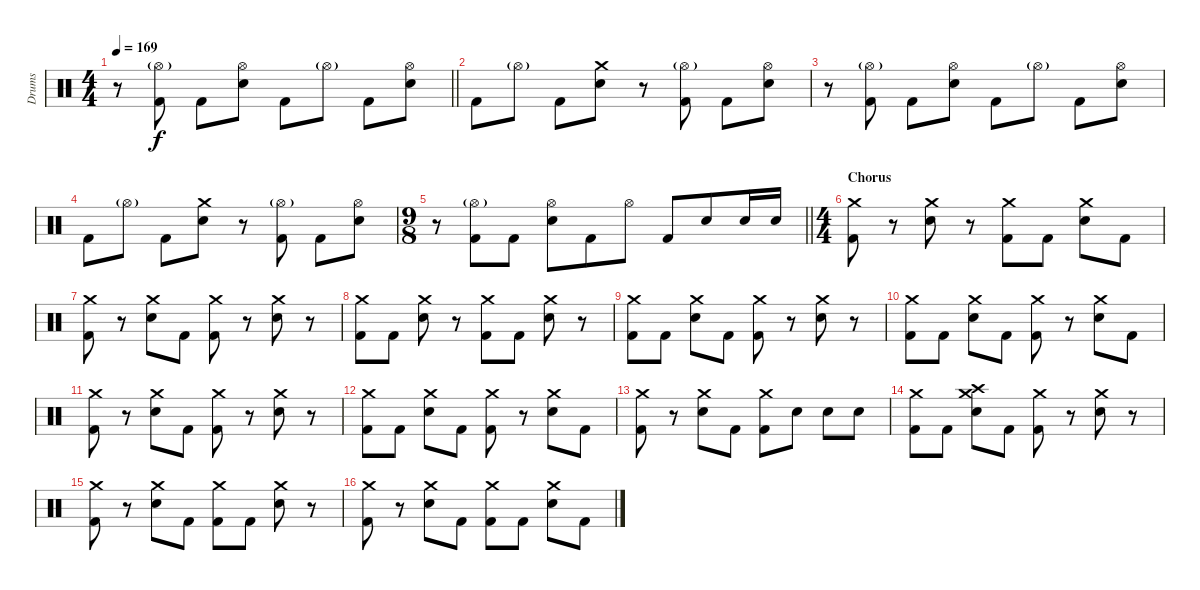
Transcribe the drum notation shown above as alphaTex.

\track ("Drums" "Drums") {instrument percussion}
\staff {score}
\articulation defaults
\ts (4 4)
\tempo 169
\clef neutral
\barLineRight lightlight
\ks c
r.8{dy f} ("Hi-Hat (open)"{g} "Kick (hit) 2").8 "Kick (hit) 2".8 ("Hi-Hat (open)" "Electric Snare (hit)").8 "Kick (hit) 2".8 "Hi-Hat (open)"{g}.8 "Kick (hit) 2".8 ("Hi-Hat (open)" "Electric Snare (hit)").8 |
"Kick (hit) 2".8 "Hi-Hat (open)"{g}.8 "Kick (hit) 2".8 ("Crash medium (hit)" "Electric Snare (hit)").8 r.8 ("Hi-Hat (open)"{g} "Kick (hit) 2").8 "Kick (hit) 2".8 ("Hi-Hat (open)" "Electric Snare (hit)").8 |
r.8 ("Hi-Hat (open)"{g} "Kick (hit) 2").8 "Kick (hit) 2".8 ("Hi-Hat (open)" "Electric Snare (hit)").8 "Kick (hit) 2".8 "Hi-Hat (open)"{g}.8 "Kick (hit) 2".8 ("Hi-Hat (open)" "Electric Snare (hit)").8 |
"Kick (hit) 2".8 "Hi-Hat (open)"{g}.8 "Kick (hit) 2".8 ("Crash medium (hit)" "Electric Snare (hit)").8 r.8 ("Hi-Hat (open)"{g} "Kick (hit) 2").8 "Kick (hit) 2".8 ("Hi-Hat (open)" "Electric Snare (hit)").8 |
\ts (9 8)
\barLineRight lightlight
r.8 ("Hi-Hat (open)"{g} "Kick (hit) 2").8 "Kick (hit) 2".8 ("Hi-Hat (open)" "Electric Snare (hit)").8 "Kick (hit) 2".8 "Hi-Hat (open)".8 "Kick (hit) 2".8 "Electric Snare (hit)".8 "Electric Snare (hit)".16 "Electric Snare (hit)".16 |
\ts (4 4)
\section ("" "Chorus")
("Crash medium (hit)" "Kick (hit) 2").8 r.8 ("Crash medium (hit)" "Electric Snare (hit)").8 r.8 ("Crash medium (hit)" "Kick (hit) 2").8 "Kick (hit) 2".8 ("Crash medium (hit)" "Electric Snare (hit)").8 "Kick (hit) 2".8 |
("Crash medium (hit)" "Kick (hit) 2").8 r.8 ("Crash medium (hit)" "Electric Snare (hit)").8 "Kick (hit) 2".8 ("Crash medium (hit)" "Kick (hit) 2").8 r.8 ("Crash medium (hit)" "Electric Snare (hit)").8 r.8 |
("Crash medium (hit)" "Kick (hit) 2").8 "Kick (hit) 2".8 ("Crash medium (hit)" "Electric Snare (hit)").8 r.8 ("Crash medium (hit)" "Kick (hit) 2").8 "Kick (hit) 2".8 ("Crash medium (hit)" "Electric Snare (hit)").8 r.8 |
("Crash medium (hit)" "Kick (hit) 2").8 "Kick (hit) 2".8 ("Crash medium (hit)" "Electric Snare (hit)").8 "Kick (hit) 2".8 ("Crash medium (hit)" "Kick (hit) 2").8 r.8 ("Crash medium (hit)" "Electric Snare (hit)").8 r.8 |
("Crash medium (hit)" "Kick (hit) 2").8 "Kick (hit) 2".8 ("Crash medium (hit)" "Electric Snare (hit)").8 "Kick (hit) 2".8 ("Crash medium (hit)" "Kick (hit) 2").8 r.8 ("Crash medium (hit)" "Electric Snare (hit)").8 "Kick (hit) 2".8 |
("Crash medium (hit)" "Kick (hit) 2").8 r.8 ("Crash medium (hit)" "Electric Snare (hit)").8 "Kick (hit) 2".8 ("Crash medium (hit)" "Kick (hit) 2").8 r.8 ("Crash medium (hit)" "Electric Snare (hit)").8 r.8 |
("Crash medium (hit)" "Kick (hit) 2").8 "Kick (hit) 2".8 ("Crash medium (hit)" "Electric Snare (hit)").8 "Kick (hit) 2".8 ("Crash medium (hit)" "Kick (hit) 2").8 r.8 ("Crash medium (hit)" "Electric Snare (hit)").8 "Kick (hit) 2".8 |
("Crash medium (hit)" "Kick (hit) 2").8 r.8 ("Crash medium (hit)" "Electric Snare (hit)").8 "Kick (hit) 2".8 ("Crash medium (hit)" "Kick (hit) 2").8 "Electric Snare (hit)".8 "Electric Snare (hit)".8 "Electric Snare (hit)".8 |
("Crash medium (hit)" "Kick (hit) 2").8 "Kick (hit) 2".8 ("Crash medium (hit)" "Crash high (hit)" "Electric Snare (hit)").8 "Kick (hit) 2".8 ("Crash medium (hit)" "Kick (hit) 2").8 r.8 ("Crash medium (hit)" "Electric Snare (hit)").8 r.8 |
("Crash medium (hit)" "Kick (hit) 2").8 r.8 ("Crash medium (hit)" "Electric Snare (hit)").8 "Kick (hit) 2".8 ("Crash medium (hit)" "Kick (hit) 2").8 "Kick (hit) 2".8 ("Crash medium (hit)" "Electric Snare (hit)").8 r.8 |
("Crash medium (hit)" "Kick (hit) 2").8 r.8 ("Crash medium (hit)" "Electric Snare (hit)").8 "Kick (hit) 2".8 ("Crash medium (hit)" "Kick (hit) 2").8 "Kick (hit) 2".8 ("Crash medium (hit)" "Electric Snare (hit)").8 "Kick (hit) 2".8
